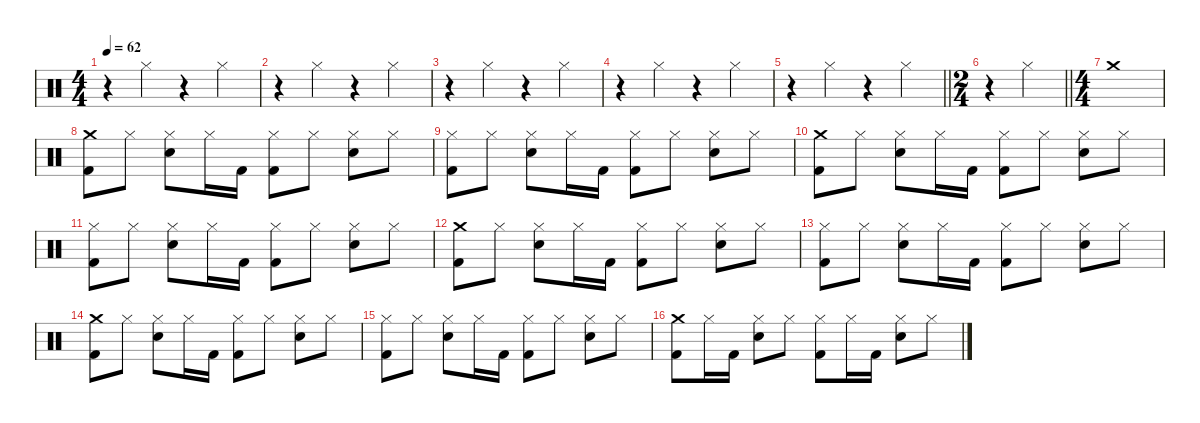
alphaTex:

\defaultSystemsLayout 4
\hideDynamics
\bracketExtendMode nobrackets
\singleTrackTrackNamePolicy hidden
\multiTrackTrackNamePolicy hidden
\firstSystemTrackNameMode fullname
\otherSystemsTrackNameOrientation horizontal
\track ("Drums" "drm.") {instrument percussion}
\staff {score}
\articulation defaults
\ts (4 4)
\tempo 62
\clef neutral
\ks c
r.4{dy f beam Down} "Hi-Hat (closed)".4{beam Down} r.4{beam Down} "Hi-Hat (closed)".4{beam Down} |
r.4{beam Down} "Hi-Hat (closed)".4{beam Down} r.4{beam Down} "Hi-Hat (closed)".4{beam Down} |
r.4{beam Down} "Hi-Hat (closed)".4{beam Down} r.4{beam Down} "Hi-Hat (closed)".4{beam Down} |
r.4{beam Down} "Hi-Hat (closed)".4{beam Down} r.4{beam Down} "Hi-Hat (closed)".4{beam Down} |
\barLineRight lightlight
r.4{beam Down} "Hi-Hat (closed)".4{beam Down} r.4{beam Down} "Hi-Hat (closed)".4{beam Down} |
\ts (2 4)
\beaming (8 2 2)
\barLineRight lightlight
r.4{beam Down} "Hi-Hat (closed)".4{beam Down} |
\ts (4 4)
\beaming (8 2 2 2 2)
"Crash medium (hit)".1{beam Down} |
("Crash medium (hit)" "Kick (hit) 2").8{beam Down} "Hi-Hat (closed)".8{beam Down} ("Hi-Hat (closed)" "Snare (hit) 2").8{beam Down} "Hi-Hat (closed)".16{beam Down} "Kick (hit) 2".16{beam Down} ("Hi-Hat (closed)" "Kick (hit) 2").8{beam Down} "Hi-Hat (closed)".8{beam Down} ("Hi-Hat (closed)" "Snare (hit) 2").8{beam Down} "Hi-Hat (closed)".8{beam Down} |
("Hi-Hat (closed)" "Kick (hit) 2").8{beam Down} "Hi-Hat (closed)".8{beam Down} ("Hi-Hat (closed)" "Snare (hit) 2").8{beam Down} "Hi-Hat (closed)".16{beam Down} "Kick (hit) 2".16{beam Down} ("Hi-Hat (closed)" "Kick (hit) 2").8{beam Down} "Hi-Hat (closed)".8{beam Down} ("Hi-Hat (closed)" "Snare (hit) 2").8{beam Down} "Hi-Hat (closed)".8{beam Down} |
("Crash medium (hit)" "Kick (hit) 2").8{beam Down} "Hi-Hat (closed)".8{beam Down} ("Hi-Hat (closed)" "Snare (hit) 2").8{beam Down} "Hi-Hat (closed)".16{beam Down} "Kick (hit) 2".16{beam Down} ("Hi-Hat (closed)" "Kick (hit) 2").8{beam Down} "Hi-Hat (closed)".8{beam Down} ("Hi-Hat (closed)" "Snare (hit) 2").8{beam Down} "Hi-Hat (closed)".8{beam Down} |
("Hi-Hat (closed)" "Kick (hit) 2").8{beam Down} "Hi-Hat (closed)".8{beam Down} ("Hi-Hat (closed)" "Snare (hit) 2").8{beam Down} "Hi-Hat (closed)".16{beam Down} "Kick (hit) 2".16{beam Down} ("Hi-Hat (closed)" "Kick (hit) 2").8{beam Down} "Hi-Hat (closed)".8{beam Down} ("Hi-Hat (closed)" "Snare (hit) 2").8{beam Down} "Hi-Hat (closed)".8{beam Down} |
("Crash medium (hit)" "Kick (hit) 2").8{beam Down} "Hi-Hat (closed)".8{beam Down} ("Hi-Hat (closed)" "Snare (hit) 2").8{beam Down} "Hi-Hat (closed)".16{beam Down} "Kick (hit) 2".16{beam Down} ("Hi-Hat (closed)" "Kick (hit) 2").8{beam Down} "Hi-Hat (closed)".8{beam Down} ("Hi-Hat (closed)" "Snare (hit) 2").8{beam Down} "Hi-Hat (closed)".8{beam Down} |
("Hi-Hat (closed)" "Kick (hit) 2").8{beam Down} "Hi-Hat (closed)".8{beam Down} ("Hi-Hat (closed)" "Snare (hit) 2").8{beam Down} "Hi-Hat (closed)".16{beam Down} "Kick (hit) 2".16{beam Down} ("Hi-Hat (closed)" "Kick (hit) 2").8{beam Down} "Hi-Hat (closed)".8{beam Down} ("Hi-Hat (closed)" "Snare (hit) 2").8{beam Down} "Hi-Hat (closed)".8{beam Down} |
("Crash medium (hit)" "Kick (hit) 2").8{beam Down} "Hi-Hat (closed)".8{beam Down} ("Hi-Hat (closed)" "Snare (hit) 2").8{beam Down} "Hi-Hat (closed)".16{beam Down} "Kick (hit) 2".16{beam Down} ("Hi-Hat (closed)" "Kick (hit) 2").8{beam Down} "Hi-Hat (closed)".8{beam Down} ("Hi-Hat (closed)" "Snare (hit) 2").8{beam Down} "Hi-Hat (closed)".8{beam Down} |
("Hi-Hat (closed)" "Kick (hit) 2").8{beam Down} "Hi-Hat (closed)".8{beam Down} ("Hi-Hat (closed)" "Snare (hit) 2").8{beam Down} "Hi-Hat (closed)".16{beam Down} "Kick (hit) 2".16{beam Down} ("Hi-Hat (closed)" "Kick (hit) 2").8{beam Down} "Hi-Hat (closed)".8{beam Down} ("Hi-Hat (closed)" "Snare (hit) 2").8{beam Down} "Hi-Hat (closed)".8{beam Down} |
("Crash medium (hit)" "Kick (hit) 2").8{beam Down} "Hi-Hat (closed)".16{beam Down} "Kick (hit) 2".16{beam Down} ("Hi-Hat (closed)" "Snare (hit) 2").8{beam Down} "Hi-Hat (closed)".8{beam Down} ("Hi-Hat (closed)" "Kick (hit) 2").8{beam Down} "Hi-Hat (closed)".16{beam Down} "Kick (hit) 2".16{beam Down} ("Hi-Hat (closed)" "Snare (hit) 2").8{beam Down} "Hi-Hat (closed)".8{beam Down}
